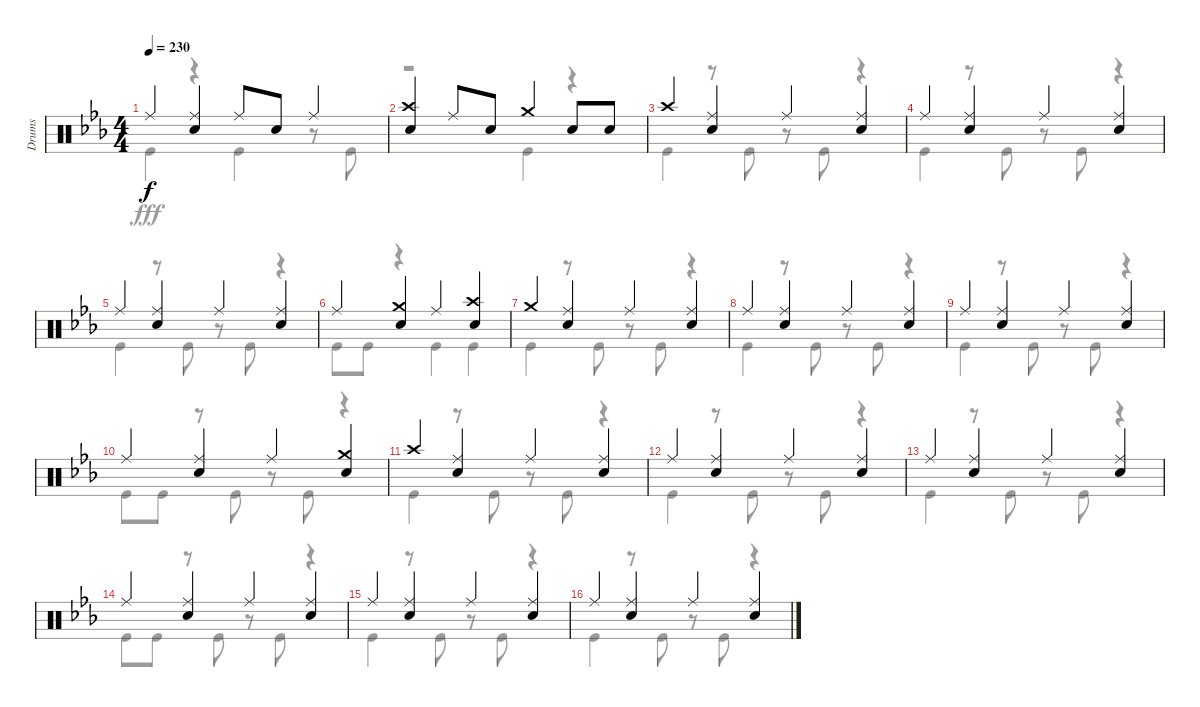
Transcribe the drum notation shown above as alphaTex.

\track ("Drums" "Drums") {instrument percussion}
\staff {score}
\articulation defaults
\voice
\ts (4 4)
\tempo 230
\clef neutral
\ks eb "Ride (middle)".4{dy f}
("Ride (middle)" "Snare (hit) 2").4 "Ride (middle)".8 "Snare (hit) 2".8 "Ride (middle)".4 |
("Crash high (hit)" "Snare (hit) 2").4 "Ride (middle)".8 "Snare (hit) 2".8 "Crash medium (hit)".4 "Snare (hit) 2".8 "Snare (hit) 2".8 |
"Crash high (hit)".4 ("Ride (middle)" "Snare (hit) 2").4 "Ride (middle)".4 ("Ride (middle)" "Snare (hit) 2").4 |
"Ride (middle)".4 ("Ride (middle)" "Snare (hit) 2").4 "Ride (middle)".4 ("Ride (middle)" "Snare (hit) 2").4 |
"Ride (middle)".4 ("Ride (middle)" "Snare (hit) 2").4 "Ride (middle)".4 ("Ride (middle)" "Snare (hit) 2").4 |
"Ride (middle)".4 ("Crash medium (hit)" "Snare (hit) 2").4 "Ride (middle)".4 ("Crash high (hit)" "Snare (hit) 2").4 |
"Crash medium (hit)".4 ("Ride (middle)" "Snare (hit) 2").4 "Ride (middle)".4 ("Ride (middle)" "Snare (hit) 2").4 |
"Ride (middle)".4 ("Ride (middle)" "Snare (hit) 2").4 "Ride (middle)".4 ("Ride (middle)" "Snare (hit) 2").4 |
"Ride (middle)".4 ("Ride (middle)" "Snare (hit) 2").4 "Ride (middle)".4 ("Ride (middle)" "Snare (hit) 2").4 |
"Ride (middle)".4 ("Ride (middle)" "Snare (hit) 2").4 "Ride (middle)".4 ("Crash medium (hit)" "Snare (hit) 2").4 |
"Crash high (hit)".4 ("Ride (middle)" "Snare (hit) 2").4 "Ride (middle)".4 ("Ride (middle)" "Snare (hit) 2").4 |
"Ride (middle)".4 ("Ride (middle)" "Snare (hit) 2").4 "Ride (middle)".4 ("Ride (middle)" "Snare (hit) 2").4 |
"Ride (middle)".4 ("Ride (middle)" "Snare (hit) 2").4 "Ride (middle)".4 ("Ride (middle)" "Snare (hit) 2").4 |
"Ride (middle)".4 ("Ride (middle)" "Snare (hit) 2").4 "Ride (middle)".4 ("Ride (middle)" "Snare (hit) 2").4 |
"Ride (middle)".4 ("Ride (middle)" "Snare (hit) 2").4 "Ride (middle)".4 ("Ride (middle)" "Snare (hit) 2").4 |
"Ride (middle)".4 ("Ride (middle)" "Snare (hit) 2").4 "Ride (middle)".4 ("Ride (middle)" "Snare (hit) 2").4
\voice
\clef neutral
\ottava regular
\simile none
\ks eb "Kick (hit)".4{dy fff}
r.4 "Kick (hit)".4 r.8 "Kick (hit)".8 |
r.2 "Kick (hit)".4 r.4 |
"Kick (hit)".4 r.8 "Kick (hit)".8 r.8 "Kick (hit)".8 r.4 |
"Kick (hit)".4 r.8 "Kick (hit)".8 r.8 "Kick (hit)".8 r.4 |
"Kick (hit)".4 r.8 "Kick (hit)".8 r.8 "Kick (hit)".8 r.4 |
"Kick (hit)".8 "Kick (hit)".8 r.4 "Kick (hit)".4 "Kick (hit)".4 |
"Kick (hit)".4 r.8 "Kick (hit)".8 r.8 "Kick (hit)".8 r.4 |
"Kick (hit)".4 r.8 "Kick (hit)".8 r.8 "Kick (hit)".8 r.4 |
"Kick (hit)".4 r.8 "Kick (hit)".8 r.8 "Kick (hit)".8 r.4 |
"Kick (hit)".8 "Kick (hit)".8 r.8 "Kick (hit)".8 r.8 "Kick (hit)".8 r.4 |
"Kick (hit)".4 r.8 "Kick (hit)".8 r.8 "Kick (hit)".8 r.4 |
"Kick (hit)".4 r.8 "Kick (hit)".8 r.8 "Kick (hit)".8 r.4 |
"Kick (hit)".4 r.8 "Kick (hit)".8 r.8 "Kick (hit)".8 r.4 |
"Kick (hit)".8 "Kick (hit)".8 r.8 "Kick (hit)".8 r.8 "Kick (hit)".8 r.4 |
"Kick (hit)".4 r.8 "Kick (hit)".8 r.8 "Kick (hit)".8 r.4 |
"Kick (hit)".4 r.8 "Kick (hit)".8 r.8 "Kick (hit)".8 r.4
